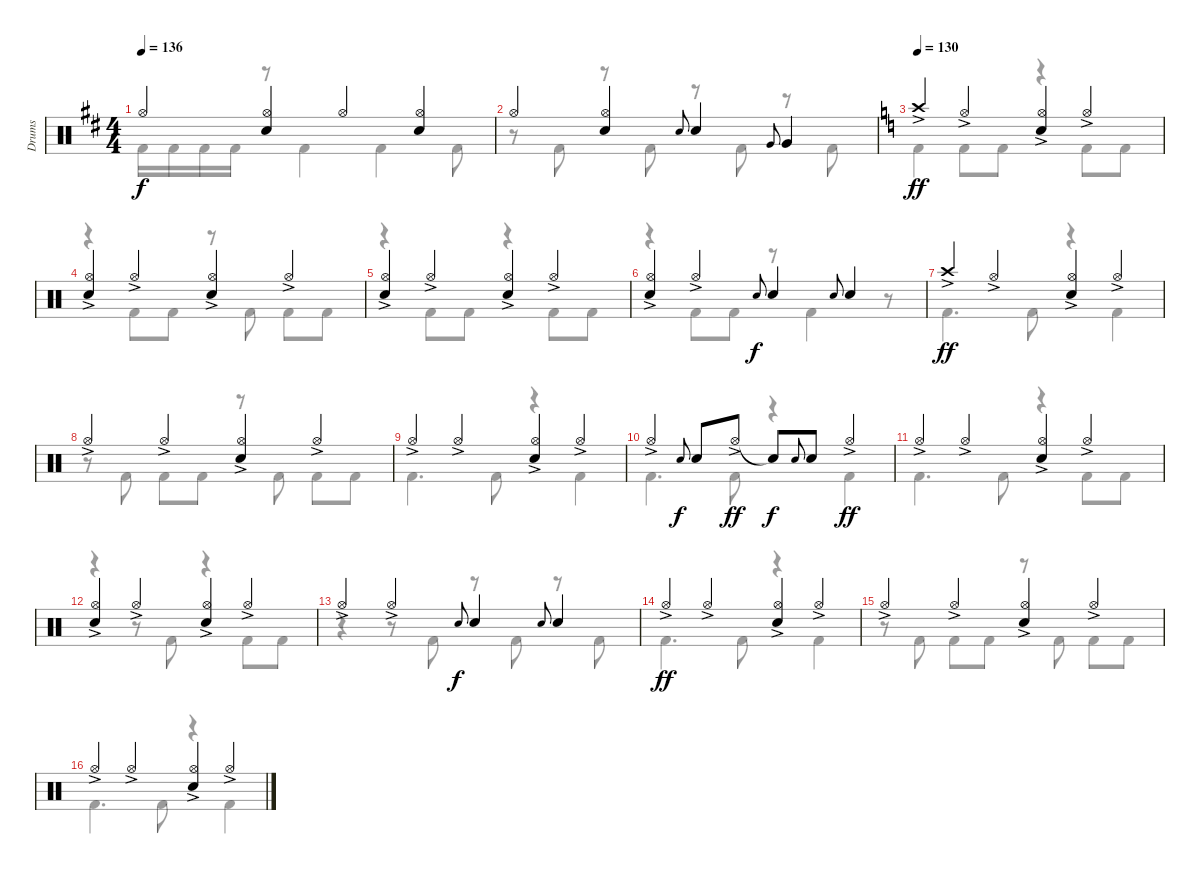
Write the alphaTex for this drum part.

\track ("Drums" "Drums") {instrument percussion}
\staff {score}
\articulation defaults
\voice
\ts (4 4)
\tempo 136
\clef neutral
\ks d "Hi-Hat (open)".4{dy f}
("Hi-Hat (open)" "Electric Snare (hit)").4 "Hi-Hat (open)".4 ("Hi-Hat (open)" "Electric Snare (hit)").4 |
"Hi-Hat (open)".4 ("Hi-Hat (open)" "Electric Snare (hit)").4 "Electric Snare (hit)".8{gr onbeat} "Electric Snare (hit)".4 "Very Low Tom (hit)".8{gr onbeat} "Very Low Tom (hit)".4 |
\tempo 130
\ks c "Crash high (hit)"{ac}.4{dy ff} "Hi-Hat (open)"{ac}.4
("Hi-Hat (open)"{ac} "Electric Snare (hit)").4 "Hi-Hat (open)"{ac}.4 |
("Hi-Hat (open)"{ac} "Electric Snare (hit)").4 "Hi-Hat (open)"{ac}.4 ("Hi-Hat (open)"{ac} "Electric Snare (hit)").4 "Hi-Hat (open)"{ac}.4 |
("Hi-Hat (open)"{ac} "Electric Snare (hit)").4 "Hi-Hat (open)"{ac}.4 ("Hi-Hat (open)"{ac} "Electric Snare (hit)").4 "Hi-Hat (open)"{ac}.4 |
("Hi-Hat (open)"{ac} "Electric Snare (hit)").4 "Hi-Hat (open)"{ac}.4 "Electric Snare (hit)".8{gr onbeat dy f} "Electric Snare (hit)".4 "Electric Snare (hit)".8{gr onbeat} "Electric Snare (hit)".4 |
"Crash high (hit)"{ac}.4{dy ff} "Hi-Hat (open)"{ac}.4 ("Hi-Hat (open)"{ac} "Electric Snare (hit)").4 "Hi-Hat (open)"{ac}.4 |
"Hi-Hat (open)"{ac}.4 "Hi-Hat (open)"{ac}.4 ("Hi-Hat (open)"{ac} "Electric Snare (hit)").4 "Hi-Hat (open)"{ac}.4 |
"Hi-Hat (open)"{ac}.4 "Hi-Hat (open)"{ac}.4 ("Hi-Hat (open)"{ac} "Electric Snare (hit)").4 "Hi-Hat (open)"{ac}.4 |
"Hi-Hat (open)"{ac}.4 "Electric Snare (hit)".8{gr onbeat dy f} "Electric Snare (hit)".8 "Hi-Hat (open)"{ac}.8{dy ff} "Snare (hit)"{t}.8{dy f} "Electric Snare (hit)".8{gr onbeat} "Electric Snare (hit)".8 "Hi-Hat (open)"{ac}.4{dy ff} |
"Hi-Hat (open)"{ac}.4 "Hi-Hat (open)"{ac}.4 ("Hi-Hat (open)"{ac} "Electric Snare (hit)").4 "Hi-Hat (open)"{ac}.4 |
("Hi-Hat (open)"{ac} "Electric Snare (hit)").4 "Hi-Hat (open)"{ac}.4 ("Hi-Hat (open)"{ac} "Electric Snare (hit)").4 "Hi-Hat (open)"{ac}.4 |
"Hi-Hat (open)"{ac}.4 "Hi-Hat (open)"{ac}.4 "Electric Snare (hit)".8{gr onbeat dy f} "Electric Snare (hit)".4 "Electric Snare (hit)".8{gr onbeat} "Electric Snare (hit)".4 |
"Hi-Hat (open)"{ac}.4{dy ff} "Hi-Hat (open)"{ac}.4 ("Hi-Hat (open)"{ac} "Electric Snare (hit)").4 "Hi-Hat (open)"{ac}.4 |
"Hi-Hat (open)"{ac}.4 "Hi-Hat (open)"{ac}.4 ("Hi-Hat (open)"{ac} "Electric Snare (hit)").4 "Hi-Hat (open)"{ac}.4 |
"Hi-Hat (open)"{ac}.4 "Hi-Hat (open)"{ac}.4 ("Hi-Hat (open)"{ac} "Electric Snare (hit)").4 "Hi-Hat (open)"{ac}.4
\voice
\clef neutral
\ottava regular
\simile none
\ks d "Kick (hit) 2".16{dy f} "Kick (hit) 2".16 "Kick (hit) 2".16 "Kick (hit) 2".16
r.8 "Kick (hit) 2".4 "Kick (hit) 2".4 "Kick (hit) 2".8 |
r.8 "Kick (hit) 2".8 r.8 "Kick (hit) 2".8 r.8 "Kick (hit) 2".8 r.8 "Kick (hit) 2".8 |
\ks c "Kick (hit) 2".4 "Kick (hit) 2".8 "Kick (hit) 2".8
r.4 "Kick (hit) 2".8 "Kick (hit) 2".8 |
r.4 "Kick (hit) 2".8 "Kick (hit) 2".8 r.8 "Kick (hit) 2".8 "Kick (hit) 2".8 "Kick (hit) 2".8 |
r.4 "Kick (hit) 2".8 "Kick (hit) 2".8 r.4 "Kick (hit) 2".8 "Kick (hit) 2".8 |
r.4 "Kick (hit) 2".8 "Kick (hit) 2".8 r.8 "Kick (hit) 2".4 r.8 |
"Kick (hit) 2".4{d} "Kick (hit) 2".8 r.4 "Kick (hit) 2".4 |
r.8 "Kick (hit) 2".8 "Kick (hit) 2".8 "Kick (hit) 2".8 r.8 "Kick (hit) 2".8 "Kick (hit) 2".8 "Kick (hit) 2".8 |
"Kick (hit) 2".4{d} "Kick (hit) 2".8 r.4 "Kick (hit) 2".4 |
"Kick (hit) 2".4{d} "Kick (hit) 2".8 r.4 "Kick (hit) 2".4 |
"Kick (hit) 2".4{d} "Kick (hit) 2".8 r.4 "Kick (hit) 2".8{beam merge} "Kick (hit) 2".8 |
r.4 r.8 "Kick (hit) 2".8 r.4 "Kick (hit) 2".8 "Kick (hit) 2".8 |
r.4 r.8 "Kick (hit) 2".8 r.8 "Kick (hit) 2".8 r.8 "Kick (hit) 2".8 |
"Kick (hit) 2".4{d} "Kick (hit) 2".8 r.4 "Kick (hit) 2".4 |
r.8 "Kick (hit) 2".8 "Kick (hit) 2".8 "Kick (hit) 2".8 r.8 "Kick (hit) 2".8 "Kick (hit) 2".8 "Kick (hit) 2".8 |
"Kick (hit) 2".4{d} "Kick (hit) 2".8 r.4 "Kick (hit) 2".4
